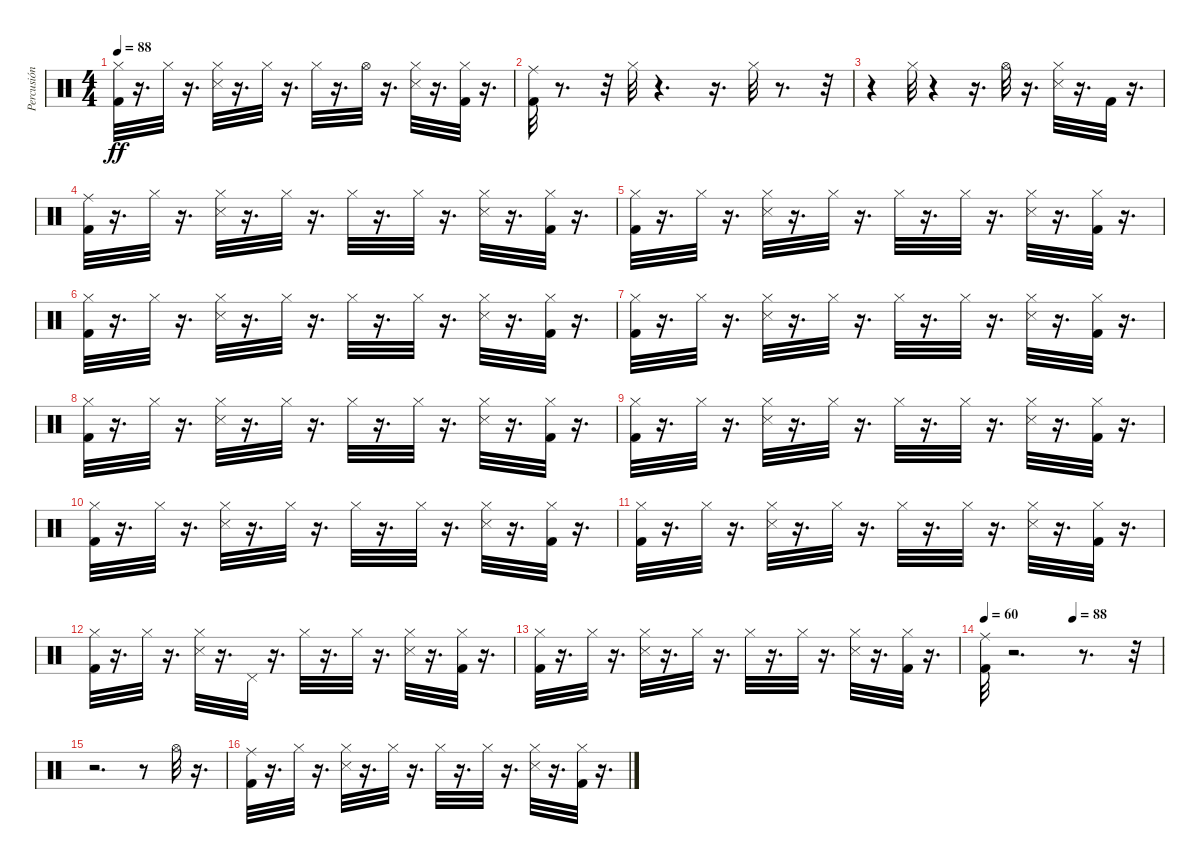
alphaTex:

\track ("Percusión" "Percusión") {instrument percussion}
\staff {score}
\articulation defaults
\ts (4 4)
\tempo 88
\clef neutral
\ks c
("Hi-Hat (closed)" "Kick (hit) 2").32{dy ff} r.16{d} "Hi-Hat (closed)".32 r.16{d} ("Hi-Hat (closed)" "Snare (side stick) 3").32 r.16{d} "Hi-Hat (closed)".32 r.16{d} "Hi-Hat (closed)".32 r.16{d} "Hi-Hat (open)".32 r.16{d} ("Snare (side stick) 3" "Hi-Hat (closed)").32 r.16{d} ("Hi-Hat (closed)" "Kick (hit) 2").32 r.16{d} |
("Ride (middle)" "Kick (hit) 2").32 r.8{d} r.32 "Hi-Hat (closed)".32 r.4{d} r.16{d} "Hi-Hat (closed)".32 r.8{d} r.32 |
r.4 "Hi-Hat (closed)".32 r.4 r.16{d} "Hi-Hat (open)".32 r.16{d} ("Hi-Hat (closed)" "Snare (side stick) 3").32 r.16{d} "Kick (hit) 2".32 r.16{d} |
("Ride (middle)" "Kick (hit) 2").32 r.16{d} "Hi-Hat (closed)".32 r.16{d} ("Hi-Hat (closed)" "Snare (side stick) 3").32 r.16{d} "Hi-Hat (closed)".32 r.16{d} "Hi-Hat (closed)".32 r.16{d} "Hi-Hat (closed)".32 r.16{d} ("Snare (side stick) 3" "Hi-Hat (closed)").32 r.16{d} ("Hi-Hat (closed)" "Kick (hit) 2").32 r.16{d} |
("Kick (hit) 2" "Hi-Hat (closed)").32 r.16{d} "Hi-Hat (closed)".32 r.16{d} ("Snare (side stick) 3" "Hi-Hat (closed)").32 r.16{d} "Hi-Hat (closed)".32 r.16{d} "Hi-Hat (closed)".32 r.16{d} "Hi-Hat (closed)".32 r.16{d} ("Hi-Hat (closed)" "Snare (side stick) 3").32 r.16{d} ("Hi-Hat (closed)" "Kick (hit) 2").32 r.16{d} |
("Kick (hit) 2" "Hi-Hat (closed)").32 r.16{d} "Hi-Hat (closed)".32 r.16{d} ("Hi-Hat (closed)" "Snare (side stick) 3").32 r.16{d} "Hi-Hat (closed)".32 r.16{d} "Hi-Hat (closed)".32 r.16{d} "Hi-Hat (closed)".32 r.16{d} ("Hi-Hat (closed)" "Snare (side stick) 3").32 r.16{d} ("Hi-Hat (closed)" "Kick (hit) 2").32 r.16{d} |
("Hi-Hat (closed)" "Kick (hit) 2").32 r.16{d} "Hi-Hat (closed)".32 r.16{d} ("Snare (side stick) 3" "Hi-Hat (closed)").32 r.16{d} "Hi-Hat (closed)".32 r.16{d} "Hi-Hat (closed)".32 r.16{d} "Hi-Hat (closed)".32 r.16{d} ("Snare (side stick) 3" "Hi-Hat (closed)").32 r.16{d} ("Hi-Hat (closed)" "Kick (hit) 2").32 r.16{d} |
("Kick (hit) 2" "Hi-Hat (closed)").32 r.16{d} "Hi-Hat (closed)".32 r.16{d} ("Hi-Hat (closed)" "Snare (side stick) 3").32 r.16{d} "Hi-Hat (closed)".32 r.16{d} "Hi-Hat (closed)".32 r.16{d} "Hi-Hat (closed)".32 r.16{d} ("Hi-Hat (closed)" "Snare (side stick) 3").32 r.16{d} ("Hi-Hat (closed)" "Kick (hit) 2").32 r.16{d} |
("Hi-Hat (closed)" "Kick (hit) 2").32 r.16{d} "Hi-Hat (closed)".32 r.16{d} ("Hi-Hat (closed)" "Snare (side stick) 3").32 r.16{d} "Hi-Hat (closed)".32 r.16{d} "Hi-Hat (closed)".32 r.16{d} "Hi-Hat (closed)".32 r.16{d} ("Snare (side stick) 3" "Hi-Hat (closed)").32 r.16{d} ("Hi-Hat (closed)" "Kick (hit) 2").32 r.16{d} |
("Hi-Hat (closed)" "Kick (hit) 2").32 r.16{d} "Hi-Hat (closed)".32 r.16{d} ("Hi-Hat (closed)" "Snare (side stick) 3").32 r.16{d} "Hi-Hat (closed)".32 r.16{d} "Hi-Hat (closed)".32 r.16{d} "Hi-Hat (closed)".32 r.16{d} ("Snare (side stick) 3" "Hi-Hat (closed)").32 r.16{d} ("Kick (hit) 2" "Hi-Hat (closed)").32 r.16{d} |
("Hi-Hat (closed)" "Kick (hit) 2").32 r.16{d} "Hi-Hat (closed)".32 r.16{d} ("Hi-Hat (closed)" "Snare (side stick) 3").32 r.16{d} "Hi-Hat (closed)".32 r.16{d} "Hi-Hat (closed)".32 r.16{d} "Hi-Hat (closed)".32 r.16{d} ("Snare (side stick) 3" "Hi-Hat (closed)").32 r.16{d} ("Kick (hit) 2" "Hi-Hat (closed)").32 r.16{d} |
("Kick (hit) 2" "Hi-Hat (closed)").32 r.16{d} "Hi-Hat (closed)".32 r.16{d} ("Hi-Hat (closed)" "Snare (side stick) 3").32 r.16{d} "Pedal Hi-Hat (hit)".32 r.16{d} "Hi-Hat (closed)".32 r.16{d} "Hi-Hat (closed)".32 r.16{d} ("Snare (side stick) 3" "Hi-Hat (closed)").32 r.16{d} ("Hi-Hat (closed)" "Kick (hit) 2").32 r.16{d} |
("Hi-Hat (closed)" "Kick (hit) 2").32 r.16{d} "Hi-Hat (closed)".32 r.16{d} ("Hi-Hat (closed)" "Snare (side stick) 3").32 r.16{d} "Hi-Hat (closed)".32 r.16{d} "Hi-Hat (closed)".32 r.16{d} "Hi-Hat (closed)".32 r.16{d} ("Snare (side stick) 3" "Hi-Hat (closed)").32 r.16{d} ("Hi-Hat (closed)" "Kick (hit) 2").32 r.16{d} |
\tempo 60
\tempo (88 0.5)
("Ride (middle)" "Kick (hit) 2").32 r.2{d} r.8{d} r.32 |
r.2{d} r.8 "Hi-Hat (open)".32 r.16{d} |
("Ride (middle)" "Kick (hit) 2").32 r.16{d} "Hi-Hat (closed)".32 r.16{d} ("Hi-Hat (closed)" "Snare (side stick) 3").32 r.16{d} "Hi-Hat (closed)".32 r.16{d} "Hi-Hat (closed)".32 r.16{d} "Hi-Hat (closed)".32 r.16{d} ("Hi-Hat (closed)" "Snare (side stick) 3").32 r.16{d} ("Kick (hit) 2" "Hi-Hat (closed)").32 r.16{d}
